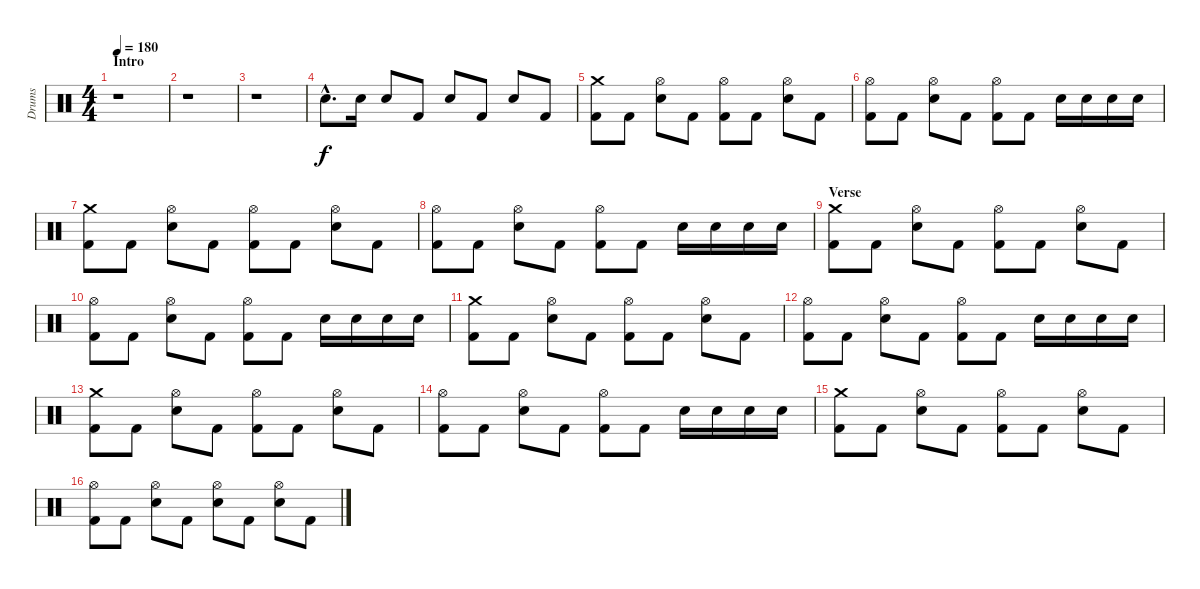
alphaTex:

\track ("Drums" "Drums") {instrument percussion}
\staff {score}
\articulation defaults
\ts (4 4)
\section ("" "Intro")
\tempo 180
\clef neutral
\ks c
r.1{dy f} |
r.1 |
r.1 |
"Electric Snare (hit)"{hac}.8{d} "Electric Snare (hit)".16 "Electric Snare (hit)".8 "Kick (hit) 2".8 "Electric Snare (hit)".8 "Kick (hit) 2".8 "Electric Snare (hit)".8 "Kick (hit) 2".8 |
("Crash medium (hit)" "Kick (hit) 2").8 "Kick (hit) 2".8 ("Hi-Hat (open)" "Electric Snare (hit)").8 "Kick (hit) 2".8 ("Hi-Hat (open)" "Kick (hit) 2").8 "Kick (hit) 2".8 ("Hi-Hat (open)" "Electric Snare (hit)").8 "Kick (hit) 2".8 |
("Hi-Hat (open)" "Kick (hit) 2").8 "Kick (hit) 2".8 ("Hi-Hat (open)" "Electric Snare (hit)").8 "Kick (hit) 2".8 ("Hi-Hat (open)" "Kick (hit) 2").8 "Kick (hit) 2".8 "Electric Snare (hit)".16 "Electric Snare (hit)".16 "Electric Snare (hit)".16 "Electric Snare (hit)".16 |
("Crash medium (hit)" "Kick (hit) 2").8 "Kick (hit) 2".8 ("Hi-Hat (open)" "Electric Snare (hit)").8 "Kick (hit) 2".8 ("Hi-Hat (open)" "Kick (hit) 2").8 "Kick (hit) 2".8 ("Hi-Hat (open)" "Electric Snare (hit)").8 "Kick (hit) 2".8 |
("Hi-Hat (open)" "Kick (hit) 2").8 "Kick (hit) 2".8 ("Hi-Hat (open)" "Electric Snare (hit)").8 "Kick (hit) 2".8 ("Hi-Hat (open)" "Kick (hit) 2").8 "Kick (hit) 2".8 "Electric Snare (hit)".16 "Electric Snare (hit)".16 "Electric Snare (hit)".16 "Electric Snare (hit)".16 |
\section ("" "Verse")
("Crash medium (hit)" "Kick (hit) 2").8 "Kick (hit) 2".8 ("Hi-Hat (open)" "Electric Snare (hit)").8 "Kick (hit) 2".8 ("Hi-Hat (open)" "Kick (hit) 2").8 "Kick (hit) 2".8 ("Hi-Hat (open)" "Electric Snare (hit)").8 "Kick (hit) 2".8 |
("Hi-Hat (open)" "Kick (hit) 2").8 "Kick (hit) 2".8 ("Hi-Hat (open)" "Electric Snare (hit)").8 "Kick (hit) 2".8 ("Hi-Hat (open)" "Kick (hit) 2").8 "Kick (hit) 2".8 "Electric Snare (hit)".16 "Electric Snare (hit)".16 "Electric Snare (hit)".16 "Electric Snare (hit)".16 |
("Crash medium (hit)" "Kick (hit) 2").8 "Kick (hit) 2".8 ("Hi-Hat (open)" "Electric Snare (hit)").8 "Kick (hit) 2".8 ("Hi-Hat (open)" "Kick (hit) 2").8 "Kick (hit) 2".8 ("Hi-Hat (open)" "Electric Snare (hit)").8 "Kick (hit) 2".8 |
("Hi-Hat (open)" "Kick (hit) 2").8 "Kick (hit) 2".8 ("Hi-Hat (open)" "Electric Snare (hit)").8 "Kick (hit) 2".8 ("Hi-Hat (open)" "Kick (hit) 2").8 "Kick (hit) 2".8 "Electric Snare (hit)".16 "Electric Snare (hit)".16 "Electric Snare (hit)".16 "Electric Snare (hit)".16 |
("Crash medium (hit)" "Kick (hit) 2").8 "Kick (hit) 2".8 ("Hi-Hat (open)" "Electric Snare (hit)").8 "Kick (hit) 2".8 ("Hi-Hat (open)" "Kick (hit) 2").8 "Kick (hit) 2".8 ("Hi-Hat (open)" "Electric Snare (hit)").8 "Kick (hit) 2".8 |
("Hi-Hat (open)" "Kick (hit) 2").8 "Kick (hit) 2".8 ("Hi-Hat (open)" "Electric Snare (hit)").8 "Kick (hit) 2".8 ("Hi-Hat (open)" "Kick (hit) 2").8 "Kick (hit) 2".8 "Electric Snare (hit)".16 "Electric Snare (hit)".16 "Electric Snare (hit)".16 "Electric Snare (hit)".16 |
("Crash medium (hit)" "Kick (hit) 2").8 "Kick (hit) 2".8 ("Hi-Hat (open)" "Electric Snare (hit)").8 "Kick (hit) 2".8 ("Hi-Hat (open)" "Kick (hit) 2").8 "Kick (hit) 2".8 ("Hi-Hat (open)" "Electric Snare (hit)").8 "Kick (hit) 2".8 |
("Hi-Hat (open)" "Kick (hit) 2").8 "Kick (hit) 2".8 ("Hi-Hat (open)" "Electric Snare (hit)").8 "Kick (hit) 2".8 ("Hi-Hat (open)" "Electric Snare (hit)").8 "Kick (hit) 2".8 ("Hi-Hat (open)" "Electric Snare (hit)").8 "Kick (hit) 2".8
